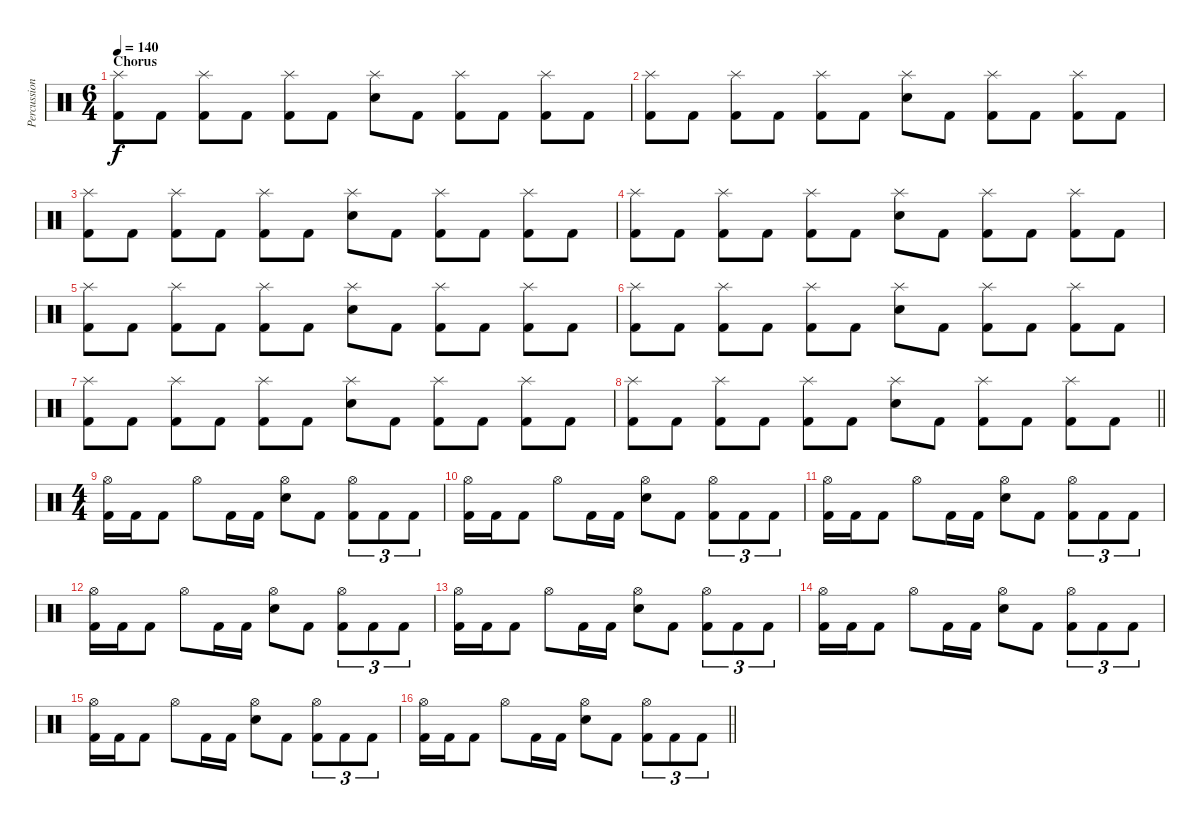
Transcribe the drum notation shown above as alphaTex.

\track ("Percussion" "Percussion") {instrument percussion}
\staff {score}
\articulation defaults
\ts (6 4)
\section ("" "Chorus")
\tempo 140
\clef neutral
\ks c
("Splash (hit)" "Kick (hit) 2").8{dy f} "Kick (hit) 2".8 ("Splash (hit)" "Kick (hit) 2").8 "Kick (hit) 2".8 ("Splash (hit)" "Kick (hit) 2").8 "Kick (hit) 2".8 ("Splash (hit)" "Electric Snare (hit)").8 "Kick (hit) 2".8 ("Splash (hit)" "Kick (hit) 2").8 "Kick (hit) 2".8 ("Splash (hit)" "Kick (hit) 2").8 "Kick (hit) 2".8 |
("Splash (hit)" "Kick (hit) 2").8 "Kick (hit) 2".8 ("Splash (hit)" "Kick (hit) 2").8 "Kick (hit) 2".8 ("Splash (hit)" "Kick (hit) 2").8 "Kick (hit) 2".8 ("Splash (hit)" "Electric Snare (hit)").8 "Kick (hit) 2".8 ("Splash (hit)" "Kick (hit) 2").8 "Kick (hit) 2".8 ("Splash (hit)" "Kick (hit) 2").8 "Kick (hit) 2".8 |
("Splash (hit)" "Kick (hit) 2").8 "Kick (hit) 2".8 ("Splash (hit)" "Kick (hit) 2").8 "Kick (hit) 2".8 ("Splash (hit)" "Kick (hit) 2").8 "Kick (hit) 2".8 ("Splash (hit)" "Electric Snare (hit)").8 "Kick (hit) 2".8 ("Splash (hit)" "Kick (hit) 2").8 "Kick (hit) 2".8 ("Splash (hit)" "Kick (hit) 2").8 "Kick (hit) 2".8 |
("Splash (hit)" "Kick (hit) 2").8 "Kick (hit) 2".8 ("Splash (hit)" "Kick (hit) 2").8 "Kick (hit) 2".8 ("Splash (hit)" "Kick (hit) 2").8 "Kick (hit) 2".8 ("Splash (hit)" "Electric Snare (hit)").8 "Kick (hit) 2".8 ("Splash (hit)" "Kick (hit) 2").8 "Kick (hit) 2".8 ("Splash (hit)" "Kick (hit) 2").8 "Kick (hit) 2".8 |
("Splash (hit)" "Kick (hit) 2").8 "Kick (hit) 2".8 ("Splash (hit)" "Kick (hit) 2").8 "Kick (hit) 2".8 ("Splash (hit)" "Kick (hit) 2").8 "Kick (hit) 2".8 ("Splash (hit)" "Electric Snare (hit)").8 "Kick (hit) 2".8 ("Splash (hit)" "Kick (hit) 2").8 "Kick (hit) 2".8 ("Splash (hit)" "Kick (hit) 2").8 "Kick (hit) 2".8 |
("Splash (hit)" "Kick (hit) 2").8 "Kick (hit) 2".8 ("Splash (hit)" "Kick (hit) 2").8 "Kick (hit) 2".8 ("Splash (hit)" "Kick (hit) 2").8 "Kick (hit) 2".8 ("Splash (hit)" "Electric Snare (hit)").8 "Kick (hit) 2".8 ("Splash (hit)" "Kick (hit) 2").8 "Kick (hit) 2".8 ("Splash (hit)" "Kick (hit) 2").8 "Kick (hit) 2".8 |
("Splash (hit)" "Kick (hit) 2").8 "Kick (hit) 2".8 ("Splash (hit)" "Kick (hit) 2").8 "Kick (hit) 2".8 ("Splash (hit)" "Kick (hit) 2").8 "Kick (hit) 2".8 ("Splash (hit)" "Electric Snare (hit)").8 "Kick (hit) 2".8 ("Splash (hit)" "Kick (hit) 2").8 "Kick (hit) 2".8 ("Splash (hit)" "Kick (hit) 2").8 "Kick (hit) 2".8 |
\barLineRight lightlight
("Splash (hit)" "Kick (hit) 2").8 "Kick (hit) 2".8 ("Splash (hit)" "Kick (hit) 2").8 "Kick (hit) 2".8 ("Splash (hit)" "Kick (hit) 2").8 "Kick (hit) 2".8 ("Splash (hit)" "Electric Snare (hit)").8 "Kick (hit) 2".8 ("Splash (hit)" "Kick (hit) 2").8 "Kick (hit) 2".8 ("Splash (hit)" "Kick (hit) 2").8 "Kick (hit) 2".8 |
\ts (4 4)
\section ("" "")
("Hi-Hat (open)" "Kick (hit) 2").16 "Kick (hit) 2".16 "Kick (hit) 2".8 "Hi-Hat (open)".8 "Kick (hit) 2".16 "Kick (hit) 2".16 ("Hi-Hat (open)" "Electric Snare (hit)").8 "Kick (hit) 2".8 ("Hi-Hat (open)" "Kick (hit) 2").8{tu (3 2)} "Kick (hit) 2".8{tu (3 2)} "Kick (hit) 2".8{tu (3 2)} |
("Hi-Hat (open)" "Kick (hit) 2").16 "Kick (hit) 2".16 "Kick (hit) 2".8 "Hi-Hat (open)".8 "Kick (hit) 2".16 "Kick (hit) 2".16 ("Hi-Hat (open)" "Electric Snare (hit)").8 "Kick (hit) 2".8 ("Hi-Hat (open)" "Kick (hit) 2").8{tu (3 2)} "Kick (hit) 2".8{tu (3 2)} "Kick (hit) 2".8{tu (3 2)} |
("Hi-Hat (open)" "Kick (hit) 2").16 "Kick (hit) 2".16 "Kick (hit) 2".8 "Hi-Hat (open)".8 "Kick (hit) 2".16 "Kick (hit) 2".16 ("Hi-Hat (open)" "Electric Snare (hit)").8 "Kick (hit) 2".8 ("Hi-Hat (open)" "Kick (hit) 2").8{tu (3 2)} "Kick (hit) 2".8{tu (3 2)} "Kick (hit) 2".8{tu (3 2)} |
("Hi-Hat (open)" "Kick (hit) 2").16 "Kick (hit) 2".16 "Kick (hit) 2".8 "Hi-Hat (open)".8 "Kick (hit) 2".16 "Kick (hit) 2".16 ("Hi-Hat (open)" "Electric Snare (hit)").8 "Kick (hit) 2".8 ("Hi-Hat (open)" "Kick (hit) 2").8{tu (3 2)} "Kick (hit) 2".8{tu (3 2)} "Kick (hit) 2".8{tu (3 2)} |
("Hi-Hat (open)" "Kick (hit) 2").16 "Kick (hit) 2".16 "Kick (hit) 2".8 "Hi-Hat (open)".8 "Kick (hit) 2".16 "Kick (hit) 2".16 ("Hi-Hat (open)" "Electric Snare (hit)").8 "Kick (hit) 2".8 ("Hi-Hat (open)" "Kick (hit) 2").8{tu (3 2)} "Kick (hit) 2".8{tu (3 2)} "Kick (hit) 2".8{tu (3 2)} |
("Hi-Hat (open)" "Kick (hit) 2").16 "Kick (hit) 2".16 "Kick (hit) 2".8 "Hi-Hat (open)".8 "Kick (hit) 2".16 "Kick (hit) 2".16 ("Hi-Hat (open)" "Electric Snare (hit)").8 "Kick (hit) 2".8 ("Hi-Hat (open)" "Kick (hit) 2").8{tu (3 2)} "Kick (hit) 2".8{tu (3 2)} "Kick (hit) 2".8{tu (3 2)} |
("Hi-Hat (open)" "Kick (hit) 2").16 "Kick (hit) 2".16 "Kick (hit) 2".8 "Hi-Hat (open)".8 "Kick (hit) 2".16 "Kick (hit) 2".16 ("Hi-Hat (open)" "Electric Snare (hit)").8 "Kick (hit) 2".8 ("Hi-Hat (open)" "Kick (hit) 2").8{tu (3 2)} "Kick (hit) 2".8{tu (3 2)} "Kick (hit) 2".8{tu (3 2)} |
\barLineRight lightlight
("Hi-Hat (open)" "Kick (hit) 2").16 "Kick (hit) 2".16 "Kick (hit) 2".8 "Hi-Hat (open)".8 "Kick (hit) 2".16 "Kick (hit) 2".16 ("Hi-Hat (open)" "Electric Snare (hit)").8 "Kick (hit) 2".8 ("Hi-Hat (open)" "Kick (hit) 2").8{tu (3 2)} "Kick (hit) 2".8{tu (3 2)} "Kick (hit) 2".8{tu (3 2)}
